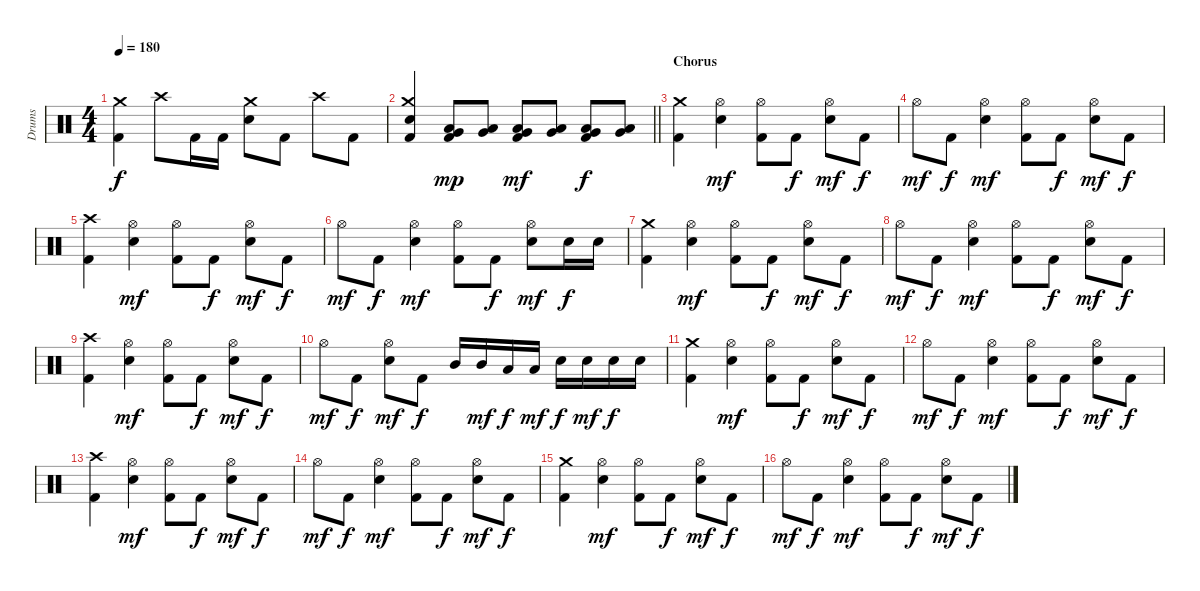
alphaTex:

\track ("Drums" "Drums") {instrument percussion}
\staff {score}
\articulation defaults
\ts (4 4)
\tempo 180
\clef neutral
\ks c
("Kick (hit) 2" "Crash medium (hit)").4{dy f} "Crash high (hit)".8 "Kick (hit) 2".16 "Kick (hit) 2".16 ("Crash medium (hit)" "Electric Snare (hit)").8 "Kick (hit) 2".8 "Crash high (hit)".8 "Kick (hit) 2".8 |
\barLineRight lightlight
("Kick (hit) 2" "Crash medium (hit)" "Electric Snare (hit)").4 ("Kick (hit) 2" "Very Low Tom (hit)" "Low Tom (hit)").8{dy mp} ("Very Low Tom (hit)" "Low Tom (hit)").8 ("Kick (hit) 2" "Very Low Tom (hit)" "Low Tom (hit)").8{dy mf} ("Very Low Tom (hit)" "Low Tom (hit)").8 ("Kick (hit) 2" "Very Low Tom (hit)" "Low Tom (hit)").8{dy f} ("Very Low Tom (hit)" "Low Tom (hit)").8 |
\section ("" "Chorus")
("Kick (hit) 2" "Crash medium (hit)").4 ("Hi-Hat (open)" "Electric Snare (hit)").4{dy mf} ("Kick (hit) 2" "Hi-Hat (open)").8 "Kick (hit) 2".8{dy f} ("Hi-Hat (open)" "Electric Snare (hit)").8{dy mf} "Kick (hit) 2".8{dy f} |
"Hi-Hat (open)".8{dy mf} "Kick (hit) 2".8{dy f} ("Hi-Hat (open)" "Electric Snare (hit)").4{dy mf} ("Kick (hit) 2" "Hi-Hat (open)").8 "Kick (hit) 2".8{dy f} ("Hi-Hat (open)" "Electric Snare (hit)").8{dy mf} "Kick (hit) 2".8{dy f} |
("Kick (hit) 2" "Crash high (hit)").4 ("Hi-Hat (open)" "Electric Snare (hit)").4{dy mf} ("Kick (hit) 2" "Hi-Hat (open)").8 "Kick (hit) 2".8{dy f} ("Hi-Hat (open)" "Electric Snare (hit)").8{dy mf} "Kick (hit) 2".8{dy f} |
"Hi-Hat (open)".8{dy mf} "Kick (hit) 2".8{dy f} ("Hi-Hat (open)" "Electric Snare (hit)").4{dy mf} ("Kick (hit) 2" "Hi-Hat (open)").8 "Kick (hit) 2".8{dy f} ("Hi-Hat (open)" "Electric Snare (hit)").8{dy mf} "Electric Snare (hit)".16{dy f} "Electric Snare (hit)".16 |
("Kick (hit) 2" "Crash medium (hit)").4 ("Hi-Hat (open)" "Electric Snare (hit)").4{dy mf} ("Kick (hit) 2" "Hi-Hat (open)").8 "Kick (hit) 2".8{dy f} ("Hi-Hat (open)" "Electric Snare (hit)").8{dy mf} "Kick (hit) 2".8{dy f} |
"Hi-Hat (open)".8{dy mf} "Kick (hit) 2".8{dy f} ("Hi-Hat (open)" "Electric Snare (hit)").4{dy mf} ("Kick (hit) 2" "Hi-Hat (open)").8 "Kick (hit) 2".8{dy f} ("Hi-Hat (open)" "Electric Snare (hit)").8{dy mf} "Kick (hit) 2".8{dy f} |
("Kick (hit) 2" "Crash high (hit)").4 ("Hi-Hat (open)" "Electric Snare (hit)").4{dy mf} ("Kick (hit) 2" "Hi-Hat (open)").8 "Kick (hit) 2".8{dy f} ("Hi-Hat (open)" "Electric Snare (hit)").8{dy mf} "Kick (hit) 2".8{dy f} |
"Hi-Hat (open)".8{dy mf} "Kick (hit) 2".8{dy f} ("Hi-Hat (open)" "Electric Snare (hit)").8{dy mf} "Kick (hit) 2".8{dy f} "Mid Tom (hit)".16 "Mid Tom (hit)".16{dy mf} "Low Tom (hit)".16{dy f} "Low Tom (hit)".16{dy mf} "Electric Snare (hit)".16{dy f} "Electric Snare (hit)".16{dy mf} "Electric Snare (hit)".16{dy f} "Electric Snare (hit)".16 |
("Kick (hit) 2" "Crash medium (hit)").4 ("Hi-Hat (open)" "Electric Snare (hit)").4{dy mf} ("Kick (hit) 2" "Hi-Hat (open)").8 "Kick (hit) 2".8{dy f} ("Hi-Hat (open)" "Electric Snare (hit)").8{dy mf} "Kick (hit) 2".8{dy f} |
"Hi-Hat (open)".8{dy mf} "Kick (hit) 2".8{dy f} ("Hi-Hat (open)" "Electric Snare (hit)").4{dy mf} ("Kick (hit) 2" "Hi-Hat (open)").8 "Kick (hit) 2".8{dy f} ("Hi-Hat (open)" "Electric Snare (hit)").8{dy mf} "Kick (hit) 2".8{dy f} |
("Kick (hit) 2" "Crash high (hit)").4 ("Hi-Hat (open)" "Electric Snare (hit)").4{dy mf} ("Kick (hit) 2" "Hi-Hat (open)").8 "Kick (hit) 2".8{dy f} ("Hi-Hat (open)" "Electric Snare (hit)").8{dy mf} "Kick (hit) 2".8{dy f} |
"Hi-Hat (open)".8{dy mf} "Kick (hit) 2".8{dy f} ("Hi-Hat (open)" "Electric Snare (hit)").4{dy mf} ("Kick (hit) 2" "Hi-Hat (open)").8 "Kick (hit) 2".8{dy f} ("Hi-Hat (open)" "Electric Snare (hit)").8{dy mf} "Kick (hit) 2".8{dy f} |
("Kick (hit) 2" "Crash medium (hit)").4 ("Hi-Hat (open)" "Electric Snare (hit)").4{dy mf} ("Kick (hit) 2" "Hi-Hat (open)").8 "Kick (hit) 2".8{dy f} ("Hi-Hat (open)" "Electric Snare (hit)").8{dy mf} "Kick (hit) 2".8{dy f} |
"Hi-Hat (open)".8{dy mf} "Kick (hit) 2".8{dy f} ("Hi-Hat (open)" "Electric Snare (hit)").4{dy mf} ("Kick (hit) 2" "Hi-Hat (open)").8 "Kick (hit) 2".8{dy f} ("Hi-Hat (open)" "Electric Snare (hit)").8{dy mf} "Kick (hit) 2".8{dy f}
